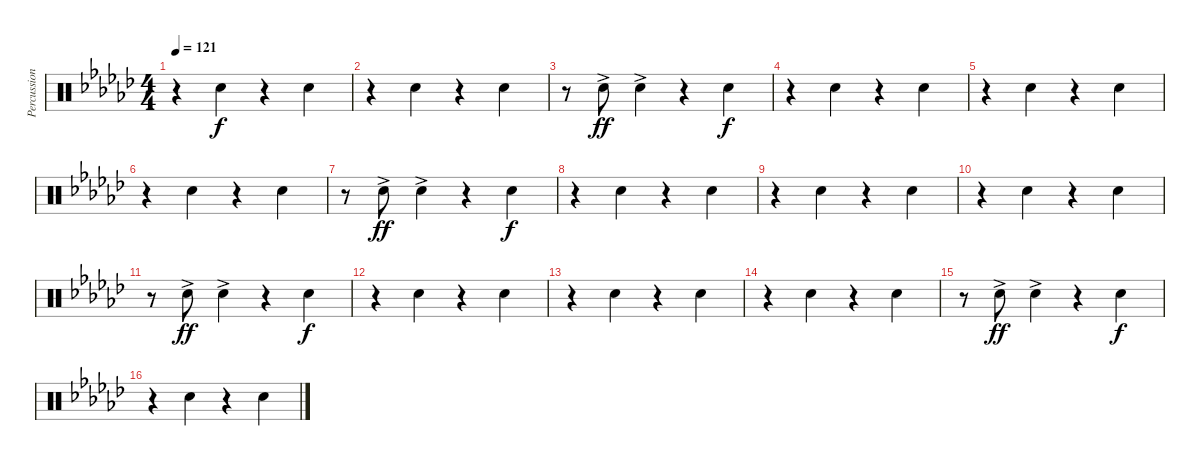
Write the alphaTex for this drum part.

\track ("Percussion" "Percussion") {instrument percussion}
\staff {score}
\articulation defaults
\ts (4 4)
\tempo 121
\clef neutral
\ks ebminor
r.4{dy f} "Hand Clap (hit)".4 r.4 "Hand Clap (hit)".4 |
r.4 "Hand Clap (hit)".4 r.4 "Hand Clap (hit)".4 |
r.8 "Hand Clap (hit)"{ac}.8{dy ff} "Hand Clap (hit)"{ac}.4 r.4 "Hand Clap (hit)".4{dy f} |
r.4 "Hand Clap (hit)".4 r.4 "Hand Clap (hit)".4 |
r.4 "Hand Clap (hit)".4 r.4 "Hand Clap (hit)".4 |
r.4 "Hand Clap (hit)".4 r.4 "Hand Clap (hit)".4 |
r.8 "Hand Clap (hit)"{ac}.8{dy ff} "Hand Clap (hit)"{ac}.4 r.4 "Hand Clap (hit)".4{dy f} |
r.4 "Hand Clap (hit)".4 r.4 "Hand Clap (hit)".4 |
r.4 "Hand Clap (hit)".4 r.4 "Hand Clap (hit)".4 |
r.4 "Hand Clap (hit)".4 r.4 "Hand Clap (hit)".4 |
r.8 "Hand Clap (hit)"{ac}.8{dy ff} "Hand Clap (hit)"{ac}.4 r.4 "Hand Clap (hit)".4{dy f} |
r.4 "Hand Clap (hit)".4 r.4 "Hand Clap (hit)".4 |
r.4 "Hand Clap (hit)".4 r.4 "Hand Clap (hit)".4 |
r.4 "Hand Clap (hit)".4 r.4 "Hand Clap (hit)".4 |
r.8 "Hand Clap (hit)"{ac}.8{dy ff} "Hand Clap (hit)"{ac}.4 r.4 "Hand Clap (hit)".4{dy f} |
r.4 "Hand Clap (hit)".4 r.4 "Hand Clap (hit)".4
